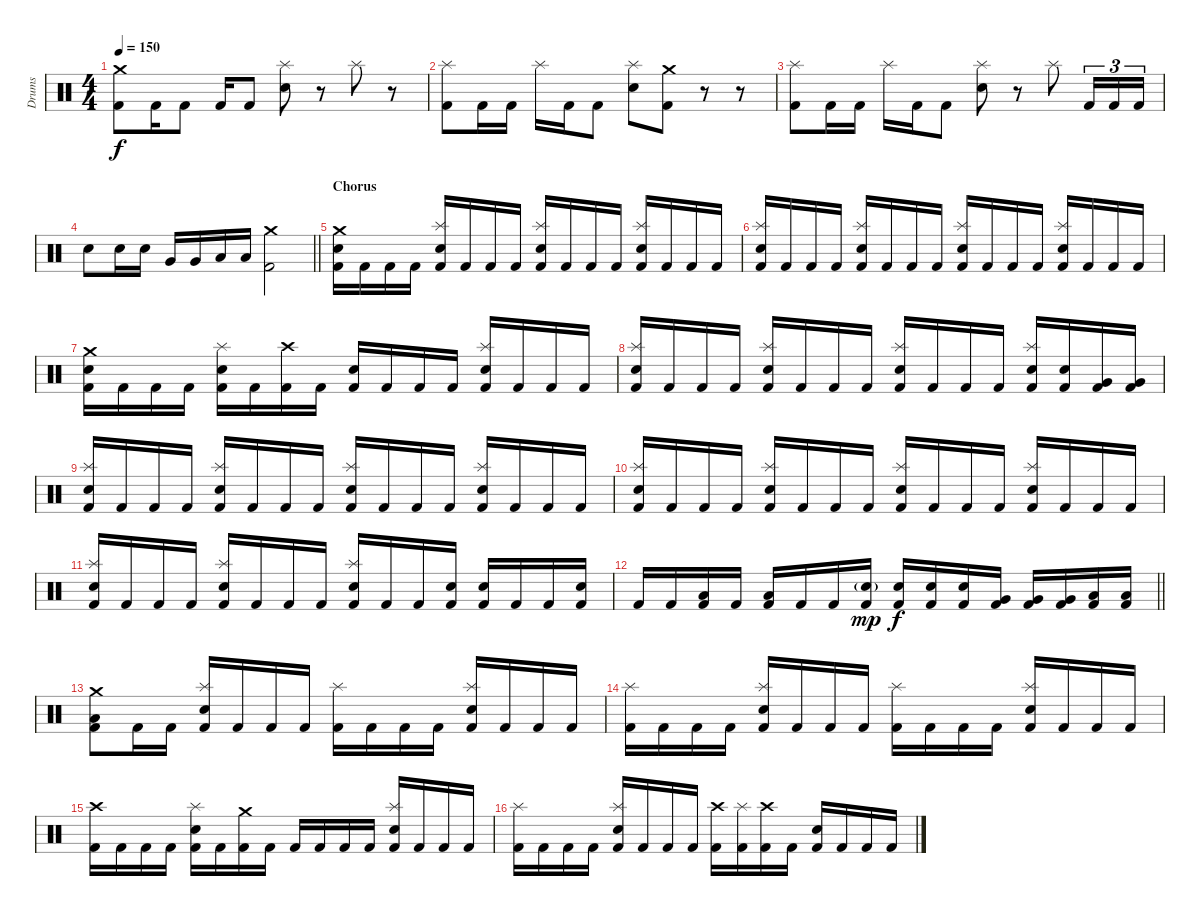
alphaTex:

\track ("Drums" "Drums") {instrument percussion}
\staff {score}
\articulation defaults
\ts (4 4)
\tempo 150
\clef neutral
\ks c
("Crash medium (hit)" "Kick (hit) 2").8{dy f} "Kick (hit) 2".16 "Kick (hit) 2".8 "Kick (hit) 2".16 "Kick (hit) 2".8 ("Splash (hit)" "Electric Snare (hit)").8 r.8 "Splash (hit)".8 r.8 |
("Splash (hit)" "Kick (hit) 2").8 "Kick (hit) 2".16 "Kick (hit) 2".16 "Splash (hit)".16 "Kick (hit) 2".16 "Kick (hit) 2".8 ("Splash (hit)" "Electric Snare (hit)").8 ("Crash medium (hit)" "Kick (hit) 2").8 r.8 r.8 |
("Splash (hit)" "Kick (hit) 2").8 "Kick (hit) 2".16 "Kick (hit) 2".16 "Splash (hit)".16 "Kick (hit) 2".16 "Kick (hit) 2".8 ("Splash (hit)" "Electric Snare (hit)").8 r.8 "Splash (hit)".8 "Kick (hit) 2".16{tu (3 2)} "Kick (hit) 2".16{tu (3 2)} "Kick (hit) 2".16{tu (3 2)} |
\barLineRight lightlight "Electric Snare (hit)".8 "Electric Snare (hit)".16 "Electric Snare (hit)".16 "Very Low Tom (hit)".16 "Very Low Tom (hit)".16 "Low Floor Tom (hit)".16 "Low Floor Tom (hit)".16
("Crash medium (hit)" "Kick (hit) 2").2 |
\section ("" "Chorus")
("Crash medium (hit)" "Electric Snare (hit)" "Kick (hit) 2").16 "Kick (hit) 2".16 "Kick (hit) 2".16 "Kick (hit) 2".16 ("Splash (hit)" "Electric Snare (hit)" "Kick (hit) 2").16 "Kick (hit) 2".16 "Kick (hit) 2".16 "Kick (hit) 2".16 ("Splash (hit)" "Electric Snare (hit)" "Kick (hit) 2").16 "Kick (hit) 2".16 "Kick (hit) 2".16 "Kick (hit) 2".16 ("Splash (hit)" "Electric Snare (hit)" "Kick (hit) 2").16 "Kick (hit) 2".16 "Kick (hit) 2".16 "Kick (hit) 2".16 |
("Splash (hit)" "Electric Snare (hit)" "Kick (hit) 2").16 "Kick (hit) 2".16 "Kick (hit) 2".16 "Kick (hit) 2".16 ("Splash (hit)" "Electric Snare (hit)" "Kick (hit) 2").16 "Kick (hit) 2".16 "Kick (hit) 2".16 "Kick (hit) 2".16 ("Splash (hit)" "Electric Snare (hit)" "Kick (hit) 2").16 "Kick (hit) 2".16 "Kick (hit) 2".16 "Kick (hit) 2".16 ("Splash (hit)" "Electric Snare (hit)" "Kick (hit) 2").16 "Kick (hit) 2".16 "Kick (hit) 2".16 "Kick (hit) 2".16 |
("Crash medium (hit)" "Electric Snare (hit)" "Kick (hit) 2").16 "Kick (hit) 2".16 "Kick (hit) 2".16 "Kick (hit) 2".16 ("Splash (hit)" "Electric Snare (hit)" "Kick (hit) 2").16 "Kick (hit) 2".16 ("Crash high (hit)" "Kick (hit) 2").16 "Kick (hit) 2".16 ("Electric Snare (hit)" "Kick (hit) 2").16 "Kick (hit) 2".16 "Kick (hit) 2".16 "Kick (hit) 2".16 ("Splash (hit)" "Electric Snare (hit)" "Kick (hit) 2").16 "Kick (hit) 2".16 "Kick (hit) 2".16 "Kick (hit) 2".16 |
("Splash (hit)" "Electric Snare (hit)" "Kick (hit) 2").16 "Kick (hit) 2".16 "Kick (hit) 2".16 "Kick (hit) 2".16 ("Splash (hit)" "Electric Snare (hit)" "Kick (hit) 2").16 "Kick (hit) 2".16 "Kick (hit) 2".16 "Kick (hit) 2".16 ("Splash (hit)" "Electric Snare (hit)" "Kick (hit) 2").16 "Kick (hit) 2".16 "Kick (hit) 2".16 "Kick (hit) 2".16 ("Splash (hit)" "Electric Snare (hit)" "Kick (hit) 2").16 ("Electric Snare (hit)" "Kick (hit) 2").16 ("Very Low Tom (hit)" "Kick (hit) 2").16 ("Very Low Tom (hit)" "Kick (hit) 2").16 |
("Splash (hit)" "Electric Snare (hit)" "Kick (hit) 2").16 "Kick (hit) 2".16 "Kick (hit) 2".16 "Kick (hit) 2".16 ("Splash (hit)" "Electric Snare (hit)" "Kick (hit) 2").16 "Kick (hit) 2".16 "Kick (hit) 2".16 "Kick (hit) 2".16 ("Splash (hit)" "Electric Snare (hit)" "Kick (hit) 2").16 "Kick (hit) 2".16 "Kick (hit) 2".16 "Kick (hit) 2".16 ("Splash (hit)" "Electric Snare (hit)" "Kick (hit) 2").16 "Kick (hit) 2".16 "Kick (hit) 2".16 "Kick (hit) 2".16 |
("Splash (hit)" "Electric Snare (hit)" "Kick (hit) 2").16 "Kick (hit) 2".16 "Kick (hit) 2".16 "Kick (hit) 2".16 ("Splash (hit)" "Electric Snare (hit)" "Kick (hit) 2").16 "Kick (hit) 2".16 "Kick (hit) 2".16 "Kick (hit) 2".16 ("Splash (hit)" "Electric Snare (hit)" "Kick (hit) 2").16 "Kick (hit) 2".16 "Kick (hit) 2".16 "Kick (hit) 2".16 ("Splash (hit)" "Electric Snare (hit)" "Kick (hit) 2").16 "Kick (hit) 2".16 "Kick (hit) 2".16 "Kick (hit) 2".16 |
("Splash (hit)" "Electric Snare (hit)" "Kick (hit) 2").16 "Kick (hit) 2".16 "Kick (hit) 2".16 "Kick (hit) 2".16 ("Splash (hit)" "Electric Snare (hit)" "Kick (hit) 2").16 "Kick (hit) 2".16 "Kick (hit) 2".16 "Kick (hit) 2".16 ("Splash (hit)" "Electric Snare (hit)" "Kick (hit) 2").16 "Kick (hit) 2".16 "Kick (hit) 2".16 ("Electric Snare (hit)" "Kick (hit) 2").16 ("Electric Snare (hit)" "Kick (hit) 2").16 "Kick (hit) 2".16 "Kick (hit) 2".16 ("Electric Snare (hit)" "Kick (hit) 2").16 |
\barLineRight lightlight "Kick (hit) 2".16 "Kick (hit) 2".16
("Low Tom (hit)" "Kick (hit) 2").16 "Kick (hit) 2".16 ("Low Tom (hit)" "Kick (hit) 2").16 "Kick (hit) 2".16 "Kick (hit) 2".16 ("Electric Snare (hit)"{g} "Kick (hit) 2").16{dy mp} ("Electric Snare (hit)" "Kick (hit) 2").16{dy f} ("Electric Snare (hit)" "Kick (hit) 2").16 ("Electric Snare (hit)" "Kick (hit) 2").16 ("Very Low Tom (hit)" "Kick (hit) 2").16 ("Very Low Tom (hit)" "Kick (hit) 2").16 ("Very Low Tom (hit)" "Kick (hit) 2").16 ("Low Floor Tom (hit)" "Kick (hit) 2").16 ("Low Floor Tom (hit)" "Kick (hit) 2").16 |
\section ("" "")
("Crash medium (hit)" "Low Floor Tom (hit)" "Kick (hit) 2").8 "Kick (hit) 2".16 "Kick (hit) 2".16 ("Splash (hit)" "Electric Snare (hit)" "Kick (hit) 2").16 "Kick (hit) 2".16 "Kick (hit) 2".16 "Kick (hit) 2".16 ("Splash (hit)" "Kick (hit) 2").16 "Kick (hit) 2".16 "Kick (hit) 2".16 "Kick (hit) 2".16 ("Splash (hit)" "Electric Snare (hit)" "Kick (hit) 2").16 "Kick (hit) 2".16 "Kick (hit) 2".16 "Kick (hit) 2".16 |
("Splash (hit)" "Kick (hit) 2").16 "Kick (hit) 2".16 "Kick (hit) 2".16 "Kick (hit) 2".16 ("Splash (hit)" "Electric Snare (hit)" "Kick (hit) 2").16 "Kick (hit) 2".16 "Kick (hit) 2".16 "Kick (hit) 2".16 ("Splash (hit)" "Kick (hit) 2").16 "Kick (hit) 2".16 "Kick (hit) 2".16 "Kick (hit) 2".16 ("Splash (hit)" "Electric Snare (hit)" "Kick (hit) 2").16 "Kick (hit) 2".16 "Kick (hit) 2".16 "Kick (hit) 2".16 |
("Crash high (hit)" "Kick (hit) 2").16 "Kick (hit) 2".16 "Kick (hit) 2".16 "Kick (hit) 2".16 ("Splash (hit)" "Electric Snare (hit)" "Kick (hit) 2").16 "Kick (hit) 2".16 ("Crash medium (hit)" "Kick (hit) 2").16 "Kick (hit) 2".16 "Kick (hit) 2".16 "Kick (hit) 2".16 "Kick (hit) 2".16 "Kick (hit) 2".16 ("Splash (hit)" "Electric Snare (hit)" "Kick (hit) 2").16 "Kick (hit) 2".16 "Kick (hit) 2".16 "Kick (hit) 2".16 |
("Splash (hit)" "Kick (hit) 2").16 "Kick (hit) 2".16 "Kick (hit) 2".16 "Kick (hit) 2".16 ("Splash (hit)" "Electric Snare (hit)" "Kick (hit) 2").16 "Kick (hit) 2".16 "Kick (hit) 2".16 "Kick (hit) 2".16 ("Crash high (hit)" "Kick (hit) 2").16 ("Splash (hit)" "Kick (hit) 2").16 ("Crash high (hit)" "Kick (hit) 2").16 "Kick (hit) 2".16 ("Electric Snare (hit)" "Kick (hit) 2").16 "Kick (hit) 2".16 "Kick (hit) 2".16 "Kick (hit) 2".16
